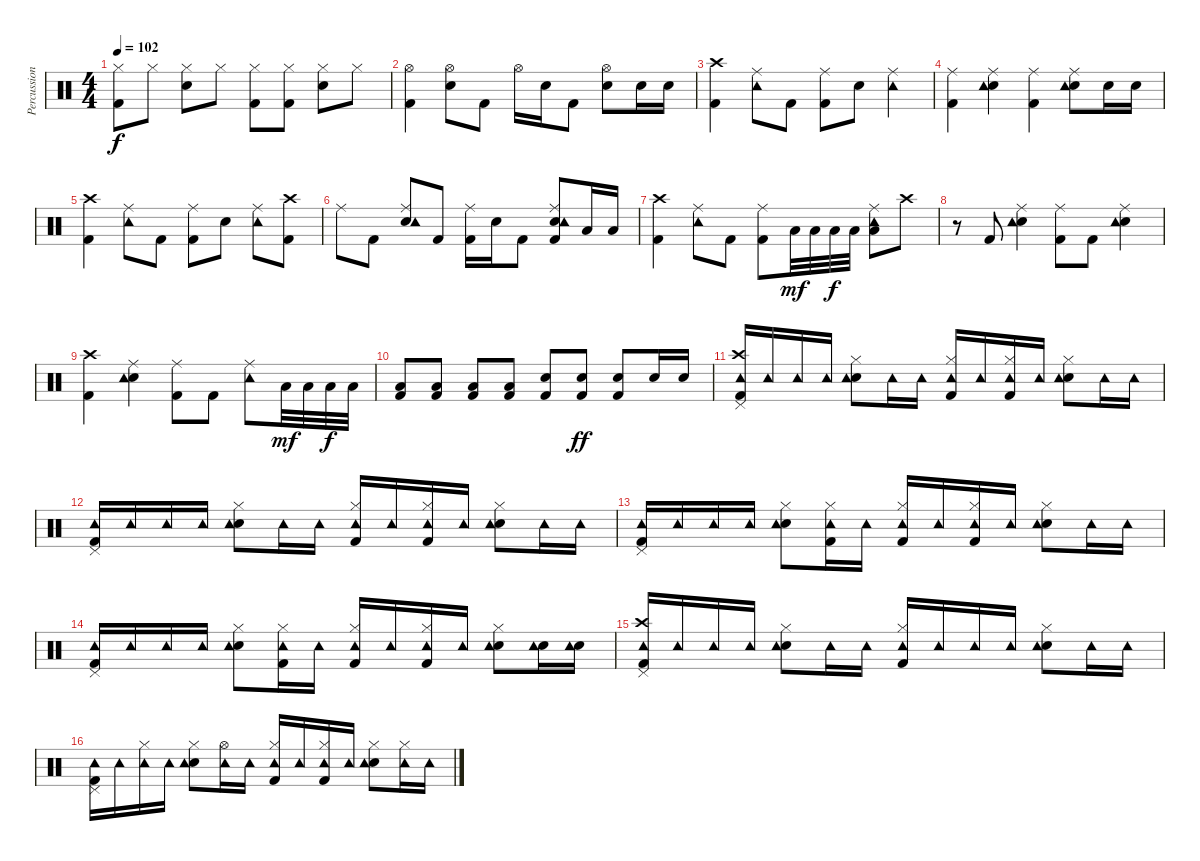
\track ("Percussions" "Percussion") {instrument percussion}
\staff {score}
\articulation defaults
\ts (4 4)
\tempo 102
\clef neutral
\ks c
("Kick (hit) 2" "Hi-Hat (closed)").8{dy f} "Hi-Hat (closed)".8 ("Snare (hit) 2" "Hi-Hat (closed)").8 "Hi-Hat (closed)".8 ("Kick (hit) 2" "Hi-Hat (closed)").8 ("Kick (hit) 2" "Hi-Hat (closed)").8 ("Snare (hit) 2" "Hi-Hat (closed)").8 "Hi-Hat (closed)".8 |
("Kick (hit) 2" "Hi-Hat (open)").4 ("Snare (hit) 2" "Hi-Hat (open)").8 "Kick (hit) 2".8 "Hi-Hat (open)".16 "Snare (hit) 2".16 "Kick (hit) 2".8 ("Snare (hit) 2" "Hi-Hat (open)").8 "Snare (hit) 2".16 "Snare (hit) 2".16 |
("Kick (hit) 2" "Crash high (hit)").4 ("Ride (middle)" "Tambourine (hit)").8 "Kick (hit) 2".8 ("Kick (hit) 2" "Ride (middle)").8 "Snare (hit) 2".8 ("Ride (middle)" "Tambourine (hit)").4 |
("Kick (hit) 2" "Ride (middle)").4 ("Snare (hit) 2" "Ride (middle)" "Tambourine (hit)").4 ("Kick (hit) 2" "Ride (middle)").4 ("Snare (hit) 2" "Ride (middle)" "Tambourine (hit)").8 "Snare (hit) 2".16 "Snare (hit) 2".16 |
("Kick (hit) 2" "Crash high (hit)").4 ("Ride (middle)" "Tambourine (hit)").8 "Kick (hit) 2".8 ("Kick (hit) 2" "Ride (middle)").8 "Snare (hit) 2".8 ("Ride (middle)" "Tambourine (hit)").8 ("Kick (hit) 2" "Crash high (hit)").8 |
"Ride (middle)".8 "Kick (hit) 2".8 ("Snare (hit) 2" "Ride (middle)" "Tambourine (hit)").8 "Kick (hit) 2".8 ("Kick (hit) 2" "Ride (middle)").16 "Snare (hit) 2".16 "Kick (hit) 2".8 ("Kick (hit) 2" "Snare (hit) 2" "Ride (middle)" "Tambourine (hit)").8 "Low Floor Tom (hit)".16 "Low Floor Tom (hit)".16 |
("Kick (hit) 2" "Crash high (hit)").4 ("Ride (middle)" "Tambourine (hit)").8 "Kick (hit) 2".8 ("Kick (hit) 2" "Ride (middle)").8 "Low Tom (hit)".32{dy mf} "Low Tom (hit)".32 "Low Tom (hit)".32{dy f} "Low Tom (hit)".32 ("Low Floor Tom (hit)" "Ride (middle)" "Tambourine (hit)").8 "Crash high (hit)".8 |
r.8 "Kick (hit) 2".8 ("Snare (hit) 2" "Ride (middle)" "Tambourine (hit)").4 ("Kick (hit) 2" "Ride (middle)").8 "Kick (hit) 2".8 ("Snare (hit) 2" "Ride (middle)" "Tambourine (hit)").4 |
("Kick (hit) 2" "Crash high (hit)").4 ("Snare (hit) 2" "Ride (middle)" "Tambourine (hit)").4 ("Kick (hit) 2" "Ride (middle)").8 "Kick (hit) 2".8 ("Ride (middle)" "Tambourine (hit)").8 "Low Tom (hit)".32{dy mf} "Low Tom (hit)".32 "Low Tom (hit)".32{dy f} "Low Tom (hit)".32 |
("Kick (hit) 2" "Low Floor Tom (hit)").8 ("Kick (hit) 2" "Low Floor Tom (hit)").8 ("Kick (hit) 2" "Low Floor Tom (hit)").8 ("Kick (hit) 2" "Low Floor Tom (hit)").8 ("Kick (hit) 2" "Snare (hit) 2").8 ("Kick (hit) 2" "Snare (hit) 2").8{dy ff} ("Kick (hit) 2" "Snare (hit) 2").8 "Snare (hit) 2".16 "Snare (hit) 2".16 |
("Kick (hit) 2" "Pedal Hi-Hat (hit)" "Crash high (hit)" "Tambourine (hit)").16 "Tambourine (hit)".16 "Tambourine (hit)".16 "Tambourine (hit)".16 ("Snare (hit) 2" "Hi-Hat (closed)" "Tambourine (hit)").8 "Tambourine (hit)".16 "Tambourine (hit)".16 ("Kick (hit) 2" "Hi-Hat (closed)" "Tambourine (hit)").16 "Tambourine (hit)".16 ("Kick (hit) 2" "Hi-Hat (closed)" "Tambourine (hit)").16 "Tambourine (hit)".16 ("Snare (hit) 2" "Hi-Hat (closed)" "Tambourine (hit)").8 "Tambourine (hit)".16 "Tambourine (hit)".16 |
("Kick (hit) 2" "Pedal Hi-Hat (hit)" "Tambourine (hit)").16 "Tambourine (hit)".16 "Tambourine (hit)".16 "Tambourine (hit)".16 ("Snare (hit) 2" "Hi-Hat (closed)" "Tambourine (hit)").8 "Tambourine (hit)".16 "Tambourine (hit)".16 ("Kick (hit) 2" "Hi-Hat (closed)" "Tambourine (hit)").16 "Tambourine (hit)".16 ("Kick (hit) 2" "Hi-Hat (closed)" "Tambourine (hit)").16 "Tambourine (hit)".16 ("Snare (hit) 2" "Hi-Hat (closed)" "Tambourine (hit)").8 "Tambourine (hit)".16 "Tambourine (hit)".16 |
("Kick (hit) 2" "Pedal Hi-Hat (hit)" "Tambourine (hit)").16 "Tambourine (hit)".16 "Tambourine (hit)".16 "Tambourine (hit)".16 ("Snare (hit) 2" "Hi-Hat (closed)" "Tambourine (hit)").8 ("Kick (hit) 2" "Hi-Hat (closed)" "Tambourine (hit)").16 "Tambourine (hit)".16 ("Kick (hit) 2" "Hi-Hat (closed)" "Tambourine (hit)").16 "Tambourine (hit)".16 ("Kick (hit) 2" "Hi-Hat (closed)" "Tambourine (hit)").16 "Tambourine (hit)".16 ("Snare (hit) 2" "Hi-Hat (closed)" "Tambourine (hit)").8 "Tambourine (hit)".16 "Tambourine (hit)".16 |
("Kick (hit) 2" "Pedal Hi-Hat (hit)" "Tambourine (hit)").16 "Tambourine (hit)".16 "Tambourine (hit)".16 "Tambourine (hit)".16 ("Snare (hit) 2" "Hi-Hat (closed)" "Tambourine (hit)").8 ("Kick (hit) 2" "Hi-Hat (closed)" "Tambourine (hit)").16 "Tambourine (hit)".16 ("Kick (hit) 2" "Hi-Hat (closed)" "Tambourine (hit)").16 "Tambourine (hit)".16 ("Kick (hit) 2" "Hi-Hat (closed)" "Tambourine (hit)").16 "Tambourine (hit)".16 ("Snare (hit) 2" "Hi-Hat (closed)" "Tambourine (hit)").8 ("Snare (hit) 2" "Tambourine (hit)").16 ("Snare (hit) 2" "Tambourine (hit)").16 |
("Kick (hit) 2" "Pedal Hi-Hat (hit)" "Crash high (hit)" "Tambourine (hit)").16 "Tambourine (hit)".16 "Tambourine (hit)".16 "Tambourine (hit)".16 ("Snare (hit) 2" "Hi-Hat (closed)" "Tambourine (hit)").8 "Tambourine (hit)".16 "Tambourine (hit)".16 ("Kick (hit) 2" "Hi-Hat (closed)" "Tambourine (hit)").16 "Tambourine (hit)".16 "Tambourine (hit)".16 "Tambourine (hit)".16 ("Snare (hit) 2" "Hi-Hat (closed)" "Tambourine (hit)").8 "Tambourine (hit)".16 "Tambourine (hit)".16 |
("Kick (hit) 2" "Pedal Hi-Hat (hit)" "Tambourine (hit)").16 "Tambourine (hit)".16 ("Hi-Hat (closed)" "Tambourine (hit)").16 "Tambourine (hit)".16 ("Snare (hit) 2" "Hi-Hat (closed)" "Tambourine (hit)").8 ("Hi-Hat (open)" "Tambourine (hit)").16 "Tambourine (hit)".16 ("Kick (hit) 2" "Hi-Hat (closed)" "Tambourine (hit)").16 "Tambourine (hit)".16 ("Kick (hit) 2" "Hi-Hat (closed)" "Tambourine (hit)").16 "Tambourine (hit)".16 ("Snare (hit) 2" "Hi-Hat (closed)" "Tambourine (hit)").8 ("Hi-Hat (closed)" "Tambourine (hit)").16 "Tambourine (hit)".16
